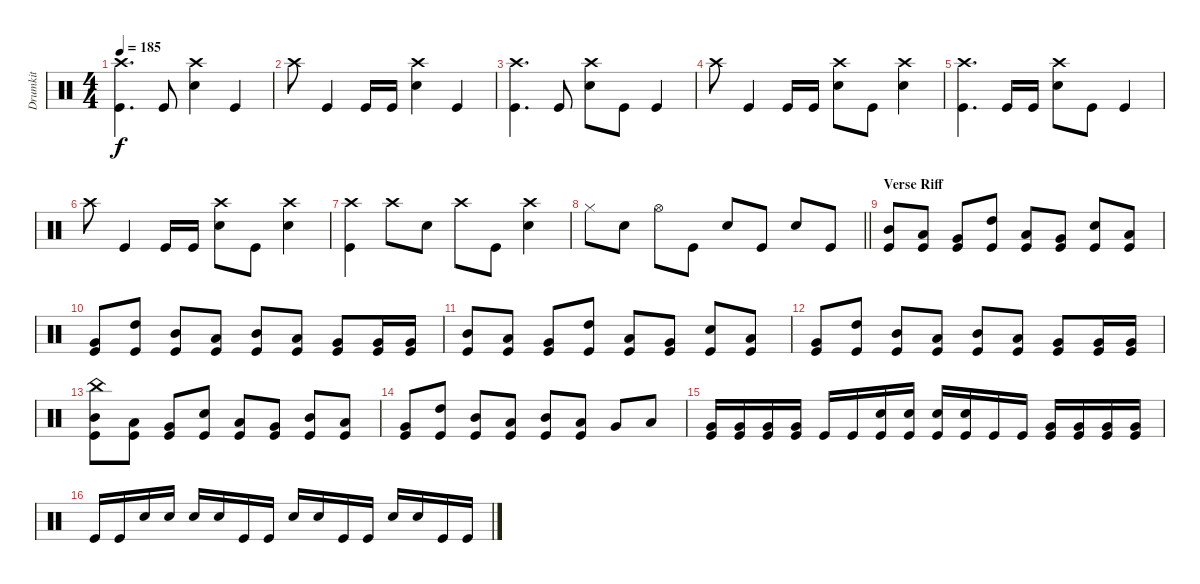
\track ("Drumkit" "Drumkit") {instrument percussion}
\staff {score}
\articulation defaults
\ts (4 4)
\tempo 185
\clef neutral
\ks c
("Crash high (hit)" "Kick (hit)").4{d dy f} "Kick (hit)".8 ("Snare (hit) 2" "Crash high (hit)").4 "Kick (hit)".4 |
"Crash high (hit)".8 "Kick (hit)".4 "Kick (hit)".16 "Kick (hit)".16 ("Snare (hit) 2" "Crash high (hit)").4 "Kick (hit)".4 |
("Crash high (hit)" "Kick (hit)").4{d} "Kick (hit)".8 ("Snare (hit) 2" "Crash high (hit)").8 "Kick (hit)".8 "Kick (hit)".4 |
"Crash high (hit)".8 "Kick (hit)".4 "Kick (hit)".16 "Kick (hit)".16 ("Crash high (hit)" "Snare (hit) 2").8 "Kick (hit)".8 ("Crash high (hit)" "Snare (hit) 2").4 |
("Crash high (hit)" "Kick (hit)").4{d} "Kick (hit)".16 "Kick (hit)".16 ("Snare (hit) 2" "Crash high (hit)").8 "Kick (hit)".8 "Kick (hit)".4 |
"Crash high (hit)".8 "Kick (hit)".4 "Kick (hit)".16 "Kick (hit)".16 ("Crash high (hit)" "Snare (hit) 2").8 "Kick (hit)".8 ("Crash high (hit)" "Snare (hit) 2").4 |
("Crash high (hit)" "Kick (hit)").4 "Crash high (hit)".8 "Snare (hit) 2".8 "Crash high (hit)".8 "Kick (hit)".8 ("Snare (hit) 2" "Crash high (hit)").4 |
\barLineRight lightlight "Hi-Hat (closed)".8 "Snare (hit) 2".8 "Hi-Hat (open)".8 "Kick (hit)".8 "Snare (hit) 2".8 "Kick (hit)".8 "Snare (hit) 2".8 "Kick (hit)".8
|
\section ("" "Verse Riff")
("Mid Tom (hit)" "Kick (hit)").8 ("Low Tom (hit)" "Kick (hit)").8 ("Very Low Tom (hit)" "Kick (hit)").8 ("High Tom (hit)" "Kick (hit)").8 ("Low Tom (hit)" "Kick (hit)").8 ("Very Low Tom (hit)" "Kick (hit)").8 ("Snare (hit) 2" "Kick (hit)").8 ("Low Tom (hit)" "Kick (hit)").8 |
("Very Low Tom (hit)" "Kick (hit)").8 ("High Tom (hit)" "Kick (hit)").8 ("Mid Tom (hit)" "Kick (hit)").8 ("Low Tom (hit)" "Kick (hit)").8 ("Mid Tom (hit)" "Kick (hit)").8 ("Low Tom (hit)" "Kick (hit)").8 ("Very Low Tom (hit)" "Kick (hit)").8 ("Very Low Tom (hit)" "Kick (hit)").16 ("Very Low Tom (hit)" "Kick (hit)").16 |
("Mid Tom (hit)" "Kick (hit)").8 ("Low Tom (hit)" "Kick (hit)").8 ("Very Low Tom (hit)" "Kick (hit)").8 ("High Tom (hit)" "Kick (hit)").8 ("Low Tom (hit)" "Kick (hit)").8 ("Very Low Tom (hit)" "Kick (hit)").8 ("Snare (hit) 2" "Kick (hit)").8 ("Low Tom (hit)" "Kick (hit)").8 |
("Very Low Tom (hit)" "Kick (hit)").8 ("High Tom (hit)" "Kick (hit)").8 ("Mid Tom (hit)" "Kick (hit)").8 ("Low Tom (hit)" "Kick (hit)").8 ("Mid Tom (hit)" "Kick (hit)").8 ("Low Tom (hit)" "Kick (hit)").8 ("Very Low Tom (hit)" "Kick (hit)").8 ("Very Low Tom (hit)" "Kick (hit)").16 ("Very Low Tom (hit)" "Kick (hit)").16 |
("China (hit)" "Mid Tom (hit)" "Kick (hit)").8 ("Low Tom (hit)" "Kick (hit)").8 ("Very Low Tom (hit)" "Kick (hit)").8 ("Snare (hit) 2" "Kick (hit)").8 ("Low Tom (hit)" "Kick (hit)").8 ("Very Low Tom (hit)" "Kick (hit)").8 ("Mid Tom (hit)" "Kick (hit)").8 ("Low Tom (hit)" "Kick (hit)").8 |
("Very Low Tom (hit)" "Kick (hit)").8 ("High Tom (hit)" "Kick (hit)").8 ("Mid Tom (hit)" "Kick (hit)").8 ("Low Tom (hit)" "Kick (hit)").8 ("Mid Tom (hit)" "Kick (hit)").8 ("Low Tom (hit)" "Kick (hit)").8 "Very Low Tom (hit)".8 "Low Floor Tom (hit)".8 |
("Very Low Tom (hit)" "Kick (hit)").16 ("Very Low Tom (hit)" "Kick (hit)").16 ("Very Low Tom (hit)" "Kick (hit)").16 ("Very Low Tom (hit)" "Kick (hit)").16 "Kick (hit)".16 "Kick (hit)".16 ("Snare (hit) 2" "Kick (hit)").16 ("Snare (hit) 2" "Kick (hit)").16 ("Snare (hit) 2" "Kick (hit)").16 ("Snare (hit) 2" "Kick (hit)").16 "Kick (hit)".16 "Kick (hit)".16 ("Very Low Tom (hit)" "Kick (hit)").16 ("Very Low Tom (hit)" "Kick (hit)").16 ("Very Low Tom (hit)" "Kick (hit)").16 ("Very Low Tom (hit)" "Kick (hit)").16 |
"Kick (hit)".16 "Kick (hit)".16 "Snare (hit) 2".16 "Snare (hit) 2".16 "Snare (hit) 2".16 "Snare (hit) 2".16 "Kick (hit)".16 "Kick (hit)".16 "Snare (hit) 2".16 "Snare (hit) 2".16 "Kick (hit)".16 "Kick (hit)".16 "Snare (hit) 2".16 "Snare (hit) 2".16 "Kick (hit)".16 "Kick (hit)".16
